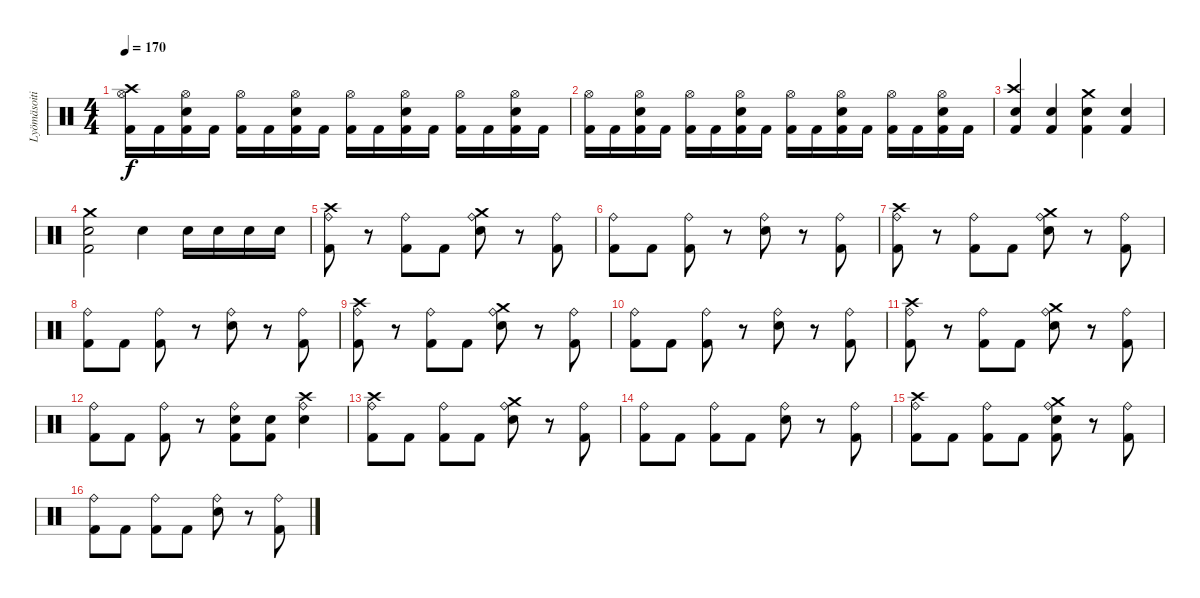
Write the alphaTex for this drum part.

\track ("Lyömäsoitin" "Lyömäsoiti") {instrument percussion}
\staff {score}
\articulation defaults
\ts (4 4)
\tempo 170
\clef neutral
\ks c
("Kick (hit) 2" "Crash high (hit)" "Hi-Hat (open)").16{dy f} "Kick (hit) 2".16 ("Kick (hit) 2" "Snare (hit) 2" "Hi-Hat (open)").16 "Kick (hit) 2".16 ("Kick (hit) 2" "Hi-Hat (open)").16 "Kick (hit) 2".16 ("Kick (hit) 2" "Snare (hit) 2" "Hi-Hat (open)").16 "Kick (hit) 2".16 ("Kick (hit) 2" "Hi-Hat (open)").16 "Kick (hit) 2".16 ("Kick (hit) 2" "Snare (hit) 2" "Hi-Hat (open)").16 "Kick (hit) 2".16 ("Kick (hit) 2" "Hi-Hat (open)").16 "Kick (hit) 2".16 ("Kick (hit) 2" "Snare (hit) 2" "Hi-Hat (open)").16 "Kick (hit) 2".16 |
("Kick (hit) 2" "Hi-Hat (open)").16 "Kick (hit) 2".16 ("Kick (hit) 2" "Snare (hit) 2" "Hi-Hat (open)").16 "Kick (hit) 2".16 ("Kick (hit) 2" "Hi-Hat (open)").16 "Kick (hit) 2".16 ("Kick (hit) 2" "Snare (hit) 2" "Hi-Hat (open)").16 "Kick (hit) 2".16 ("Kick (hit) 2" "Hi-Hat (open)").16 "Kick (hit) 2".16 ("Kick (hit) 2" "Snare (hit) 2" "Hi-Hat (open)").16 "Kick (hit) 2".16 ("Kick (hit) 2" "Hi-Hat (open)").16 "Kick (hit) 2".16 ("Kick (hit) 2" "Snare (hit) 2" "Hi-Hat (open)").16 "Kick (hit) 2".16 |
("Kick (hit) 2" "Snare (hit) 2" "Crash high (hit)").4 ("Kick (hit) 2" "Snare (hit) 2").4 ("Kick (hit) 2" "Snare (hit) 2" "Crash medium (hit)").4 ("Kick (hit) 2" "Snare (hit) 2").4 |
("Kick (hit) 2" "Snare (hit) 2" "Crash medium (hit)").2 "Electric Snare (hit)".4 "Snare (hit) 2".16 "Snare (hit) 2".16 "Snare (hit) 2".16 "Snare (hit) 2".16 |
("Ride (bell)" "Kick (hit) 2" "Crash high (hit)").8 r.8 ("Ride (bell)" "Kick (hit) 2").8 "Kick (hit) 2".8 ("Ride (bell)" "Snare (hit) 2" "Crash medium (hit)").8 r.8 ("Ride (bell)" "Kick (hit) 2").8 |
("Ride (bell)" "Kick (hit) 2").8 "Kick (hit) 2".8 ("Ride (bell)" "Kick (hit) 2").8 r.8 ("Ride (bell)" "Snare (hit) 2").8 r.8 ("Ride (bell)" "Kick (hit) 2").8 |
("Ride (bell)" "Kick (hit) 2" "Crash high (hit)").8 r.8 ("Ride (bell)" "Kick (hit) 2").8 "Kick (hit) 2".8 ("Ride (bell)" "Snare (hit) 2" "Crash medium (hit)").8 r.8 ("Ride (bell)" "Kick (hit) 2").8 |
("Ride (bell)" "Kick (hit) 2").8 "Kick (hit) 2".8 ("Ride (bell)" "Kick (hit) 2").8 r.8 ("Ride (bell)" "Snare (hit) 2").8 r.8 ("Ride (bell)" "Kick (hit) 2").8 |
("Ride (bell)" "Kick (hit) 2" "Crash high (hit)").8 r.8 ("Ride (bell)" "Kick (hit) 2").8 "Kick (hit) 2".8 ("Ride (bell)" "Snare (hit) 2" "Crash medium (hit)").8 r.8 ("Ride (bell)" "Kick (hit) 2").8 |
("Ride (bell)" "Kick (hit) 2").8 "Kick (hit) 2".8 ("Ride (bell)" "Kick (hit) 2").8 r.8 ("Ride (bell)" "Snare (hit) 2").8 r.8 ("Ride (bell)" "Kick (hit) 2").8 |
("Ride (bell)" "Kick (hit) 2" "Crash high (hit)").8 r.8 ("Ride (bell)" "Kick (hit) 2").8 "Kick (hit) 2".8 ("Ride (bell)" "Snare (hit) 2" "Crash medium (hit)").8 r.8 ("Ride (bell)" "Kick (hit) 2").8 |
("Ride (bell)" "Kick (hit) 2").8 "Kick (hit) 2".8 ("Ride (bell)" "Kick (hit) 2").8 r.8 ("Ride (bell)" "Kick (hit) 2" "Snare (hit) 2").8 ("Kick (hit) 2" "Snare (hit) 2").8 ("Ride (bell)" "Crash high (hit)" "Snare (hit) 2").4 |
("Ride (bell)" "Kick (hit) 2" "Crash high (hit)").8 "Kick (hit) 2".8 ("Ride (bell)" "Kick (hit) 2").8 "Kick (hit) 2".8 ("Ride (bell)" "Snare (hit) 2" "Crash medium (hit)").8 r.8 ("Ride (bell)" "Kick (hit) 2").8 |
("Ride (bell)" "Kick (hit) 2").8 "Kick (hit) 2".8 ("Ride (bell)" "Kick (hit) 2").8 "Kick (hit) 2".8 ("Ride (bell)" "Snare (hit) 2").8 r.8 ("Ride (bell)" "Kick (hit) 2").8 |
("Ride (bell)" "Kick (hit) 2" "Crash high (hit)").8 "Kick (hit) 2".8 ("Ride (bell)" "Kick (hit) 2").8 "Kick (hit) 2".8 ("Ride (bell)" "Kick (hit) 2" "Snare (hit) 2" "Crash medium (hit)").8 r.8 ("Ride (bell)" "Kick (hit) 2").8 |
("Ride (bell)" "Kick (hit) 2").8 "Kick (hit) 2".8 ("Ride (bell)" "Kick (hit) 2").8 "Kick (hit) 2".8 ("Ride (bell)" "Snare (hit) 2").8 r.8 ("Ride (bell)" "Kick (hit) 2").8
